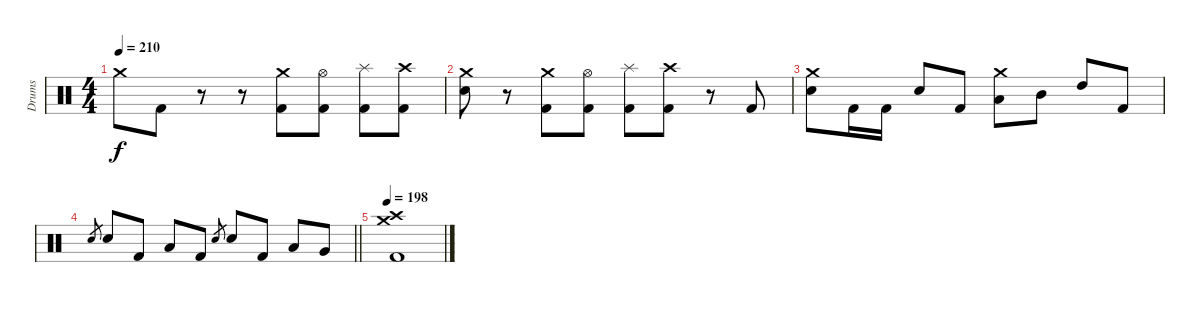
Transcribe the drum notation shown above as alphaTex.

\track ("Drums" "Drums") {instrument percussion}
\staff {score}
\articulation defaults
\ts (4 4)
\tempo 210
\clef neutral
\ks c "Crash medium (hit)".8{dy f} "Kick (hit) 2".8
r.8 r.8 ("Crash medium (hit)" "Kick (hit) 2").8 ("Hi-Hat (open)" "Kick (hit) 2").8 ("Splash (hit)" "Kick (hit) 2").8 ("Crash high (hit)" "Kick (hit) 2").8 |
("Crash medium (hit)" "Electric Snare (hit)").8 r.8 ("Crash medium (hit)" "Kick (hit) 2").8 ("Hi-Hat (open)" "Kick (hit) 2").8 ("Splash (hit)" "Kick (hit) 2").8 ("Crash high (hit)" "Kick (hit) 2").8 r.8 "Kick (hit) 2".8 |
("Crash medium (hit)" "Electric Snare (hit)").8 "Kick (hit) 2".16 "Kick (hit) 2".16 "Electric Snare (hit)".8 "Kick (hit) 2".8 ("Crash medium (hit)" "Low Tom (hit)").8 "Mid Tom (hit)".8 "High Tom (hit)".8 "Kick (hit) 2".8 |
\barLineRight lightlight "Electric Snare (hit)".8{gr} "Electric Snare (hit)".8 "Kick (hit) 2".8 "Low Tom (hit)".8 "Kick (hit) 2".8 "Electric Snare (hit)".8{gr} "Electric Snare (hit)".8 "Kick (hit) 2".8 "Low Tom (hit)".8 "Very Low Tom (hit)".8
|
\section ("" "")
\tempo 198
("Crash medium (hit)" "Crash high (hit)" "Kick (hit) 2").1
